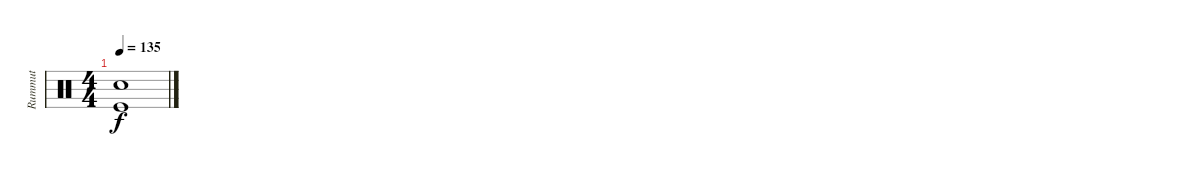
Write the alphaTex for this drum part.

\track ("Rummut" "Rummut") {instrument percussion}
\staff {score}
\articulation defaults
\ts (4 4)
\tempo 135
\clef neutral
\ks c
("Electric Snare (hit)" "Kick (hit)").1{dy f}
